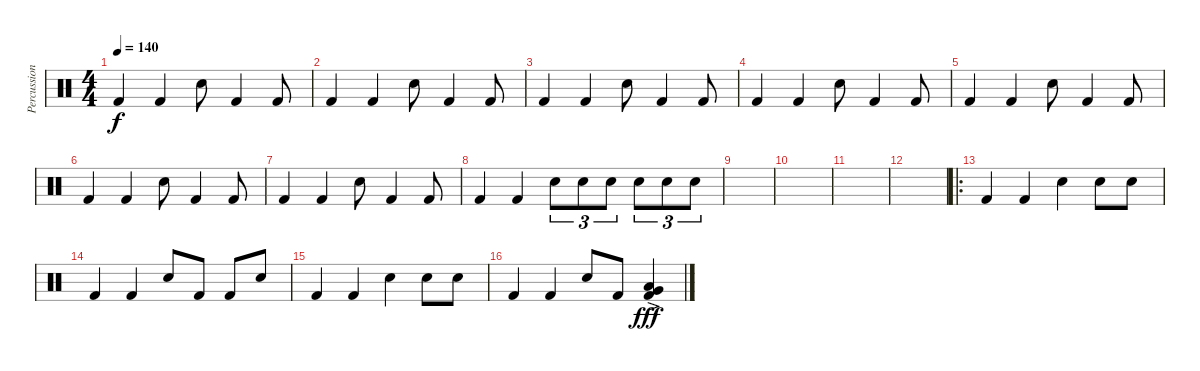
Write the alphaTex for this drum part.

\track ("Percussions" "Percussion") {instrument percussion}
\staff {score}
\articulation defaults
\ts (4 4)
\tempo 140
\clef neutral
\ks c "Kick (hit) 2".4{dy f} "Kick (hit) 2".4 "Snare (hit) 2".8 "Kick (hit) 2".4 "Kick (hit) 2".8
|
"Kick (hit) 2".4 "Kick (hit) 2".4 "Snare (hit) 2".8 "Kick (hit) 2".4 "Kick (hit) 2".8 |
"Kick (hit) 2".4 "Kick (hit) 2".4 "Snare (hit) 2".8 "Kick (hit) 2".4 "Kick (hit) 2".8 |
"Kick (hit) 2".4 "Kick (hit) 2".4 "Snare (hit) 2".8 "Kick (hit) 2".4 "Kick (hit) 2".8 |
"Kick (hit) 2".4 "Kick (hit) 2".4 "Snare (hit) 2".8 "Kick (hit) 2".4 "Kick (hit) 2".8 |
"Kick (hit) 2".4 "Kick (hit) 2".4 "Snare (hit) 2".8 "Kick (hit) 2".4 "Kick (hit) 2".8 |
"Kick (hit) 2".4 "Kick (hit) 2".4 "Snare (hit) 2".8 "Kick (hit) 2".4 "Kick (hit) 2".8 |
"Kick (hit) 2".4 "Kick (hit) 2".4 "Snare (hit) 2".8{tu (3 2)} "Snare (hit) 2".8{tu (3 2)} "Snare (hit) 2".8{tu (3 2)} "Snare (hit) 2".8{tu (3 2)} "Snare (hit) 2".8{tu (3 2)} "Snare (hit) 2".8{tu (3 2)} |
|
|
|
|
\ro "Kick (hit) 2".4 "Kick (hit) 2".4 "Snare (hit) 2".4 "Snare (hit) 2".8 "Snare (hit) 2".8
|
"Kick (hit) 2".4 "Kick (hit) 2".4 "Snare (hit) 2".8 "Kick (hit) 2".8 "Kick (hit) 2".8 "Snare (hit) 2".8 |
"Kick (hit) 2".4 "Kick (hit) 2".4 "Snare (hit) 2".4 "Snare (hit) 2".8 "Snare (hit) 2".8 |
"Kick (hit) 2".4 "Kick (hit) 2".4 "Snare (hit) 2".8 "Kick (hit) 2".8 ("Very Low Tom (hit)"{ac} "Low Floor Tom (hit)"{ac} "Kick (hit) 2").4{dy fff}
